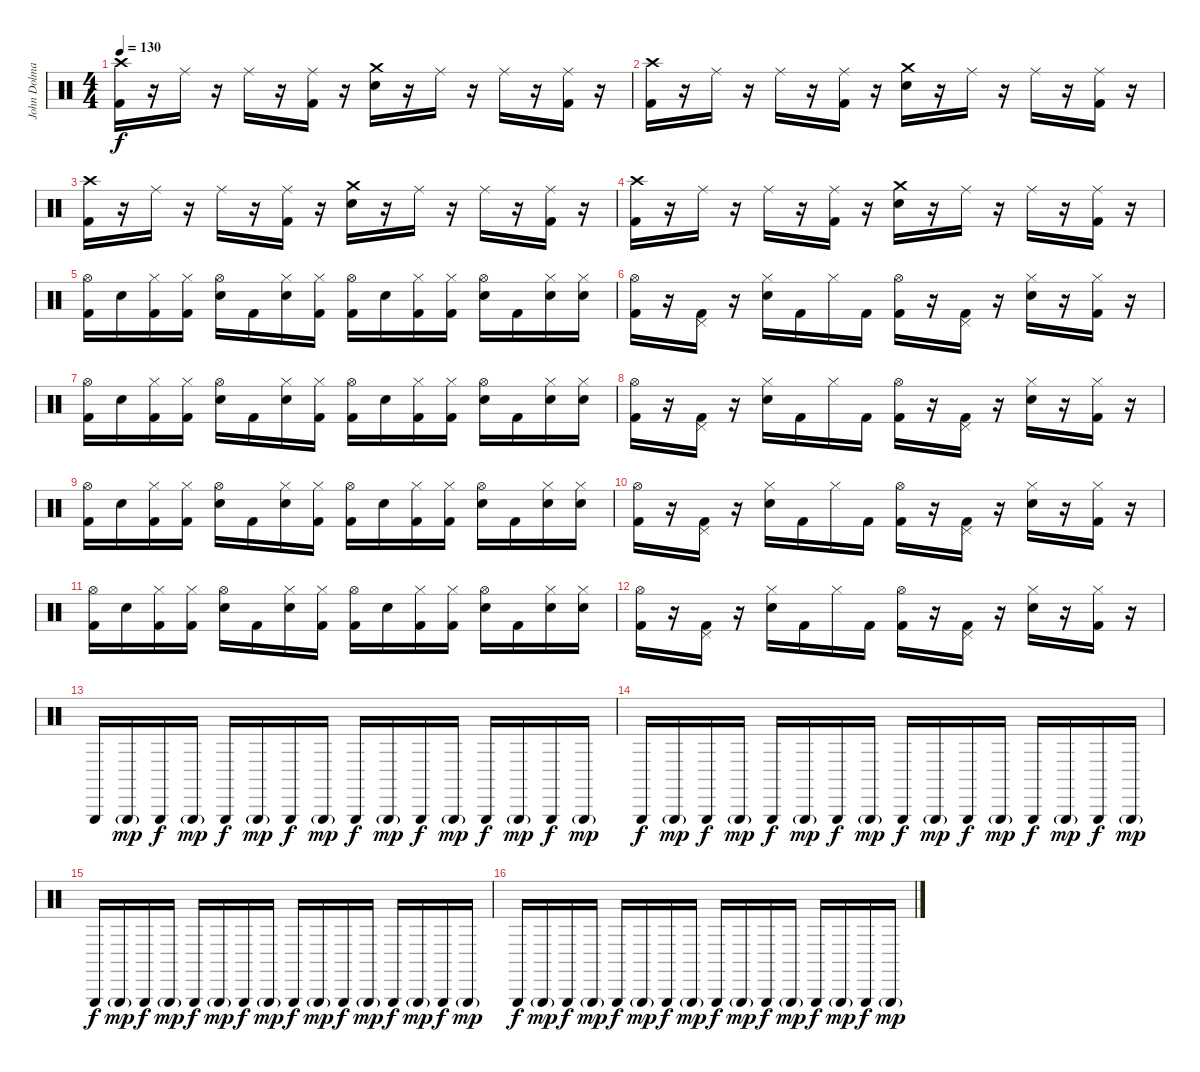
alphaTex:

\track ("John Dolmayan" "John Dolma") {instrument percussion}
\staff {score}
\articulation defaults
\ts (4 4)
\tempo 130
\clef neutral
\ks c
("Crash high (hit)" "Kick (hit) 2").16{dy f} r.16 "Ride (middle)".16 r.16 "Ride (middle)".16 r.16 ("Ride (middle)" "Kick (hit) 2").16 r.16 ("Crash medium (hit)" "Electric Snare (hit)").16 r.16 "Ride (middle)".16 r.16 "Ride (middle)".16 r.16 ("Ride (middle)" "Kick (hit) 2").16 r.16 |
("Crash high (hit)" "Kick (hit) 2").16 r.16 "Ride (middle)".16 r.16 "Ride (middle)".16 r.16 ("Ride (middle)" "Kick (hit) 2").16 r.16 ("Crash medium (hit)" "Electric Snare (hit)").16 r.16 "Ride (middle)".16 r.16 "Ride (middle)".16 r.16 ("Ride (middle)" "Kick (hit) 2").16 r.16 |
("Crash high (hit)" "Kick (hit) 2").16 r.16 "Ride (middle)".16 r.16 "Ride (middle)".16 r.16 ("Ride (middle)" "Kick (hit) 2").16 r.16 ("Crash medium (hit)" "Electric Snare (hit)").16 r.16 "Ride (middle)".16 r.16 "Ride (middle)".16 r.16 ("Ride (middle)" "Kick (hit) 2").16 r.16 |
("Crash high (hit)" "Kick (hit) 2").16 r.16 "Ride (middle)".16 r.16 "Ride (middle)".16 r.16 ("Ride (middle)" "Kick (hit) 2").16 r.16 ("Crash medium (hit)" "Electric Snare (hit)").16 r.16 "Ride (middle)".16 r.16 "Ride (middle)".16 r.16 ("Ride (middle)" "Kick (hit) 2").16 r.16 |
("Hi-Hat (open)" "Kick (hit) 2").16 "Electric Snare (hit)".16 ("Hi-Hat (closed)" "Kick (hit) 2").16 ("Hi-Hat (closed)" "Kick (hit) 2").16 ("Hi-Hat (open)" "Electric Snare (hit)").16 "Kick (hit) 2".16 ("Hi-Hat (closed)" "Electric Snare (hit)").16 ("Hi-Hat (closed)" "Kick (hit) 2").16 ("Hi-Hat (open)" "Kick (hit) 2").16 "Electric Snare (hit)".16 ("Hi-Hat (closed)" "Kick (hit) 2").16 ("Hi-Hat (closed)" "Kick (hit) 2").16 ("Hi-Hat (open)" "Electric Snare (hit)").16 "Kick (hit) 2".16 ("Hi-Hat (closed)" "Electric Snare (hit)").16 ("Hi-Hat (closed)" "Electric Snare (hit)").16 |
("Hi-Hat (open)" "Kick (hit) 2").16 r.16 ("Pedal Hi-Hat (hit)" "Kick (hit) 2").16 r.16 ("Hi-Hat (closed)" "Electric Snare (hit)").16 "Kick (hit) 2".16 "Hi-Hat (closed)".16 "Kick (hit) 2".16 ("Hi-Hat (open)" "Kick (hit) 2").16 r.16 ("Pedal Hi-Hat (hit)" "Kick (hit) 2").16 r.16 ("Hi-Hat (closed)" "Electric Snare (hit)").16 r.16 ("Hi-Hat (closed)" "Kick (hit) 2").16 r.16 |
("Hi-Hat (open)" "Kick (hit) 2").16 "Electric Snare (hit)".16 ("Hi-Hat (closed)" "Kick (hit) 2").16 ("Hi-Hat (closed)" "Kick (hit) 2").16 ("Hi-Hat (open)" "Electric Snare (hit)").16 "Kick (hit) 2".16 ("Hi-Hat (closed)" "Electric Snare (hit)").16 ("Hi-Hat (closed)" "Kick (hit) 2").16 ("Hi-Hat (open)" "Kick (hit) 2").16 "Electric Snare (hit)".16 ("Hi-Hat (closed)" "Kick (hit) 2").16 ("Hi-Hat (closed)" "Kick (hit) 2").16 ("Hi-Hat (open)" "Electric Snare (hit)").16 "Kick (hit) 2".16 ("Hi-Hat (closed)" "Electric Snare (hit)").16 ("Hi-Hat (closed)" "Electric Snare (hit)").16 |
("Hi-Hat (open)" "Kick (hit) 2").16 r.16 ("Pedal Hi-Hat (hit)" "Kick (hit) 2").16 r.16 ("Hi-Hat (closed)" "Electric Snare (hit)").16 "Kick (hit) 2".16 "Hi-Hat (closed)".16 "Kick (hit) 2".16 ("Hi-Hat (open)" "Kick (hit) 2").16 r.16 ("Pedal Hi-Hat (hit)" "Kick (hit) 2").16 r.16 ("Hi-Hat (closed)" "Electric Snare (hit)").16 r.16 ("Hi-Hat (closed)" "Kick (hit) 2").16 r.16 |
("Hi-Hat (open)" "Kick (hit) 2").16 "Electric Snare (hit)".16 ("Hi-Hat (closed)" "Kick (hit) 2").16 ("Hi-Hat (closed)" "Kick (hit) 2").16 ("Hi-Hat (open)" "Electric Snare (hit)").16 "Kick (hit) 2".16 ("Hi-Hat (closed)" "Electric Snare (hit)").16 ("Hi-Hat (closed)" "Kick (hit) 2").16 ("Hi-Hat (open)" "Kick (hit) 2").16 "Electric Snare (hit)".16 ("Hi-Hat (closed)" "Kick (hit) 2").16 ("Hi-Hat (closed)" "Kick (hit) 2").16 ("Hi-Hat (open)" "Electric Snare (hit)").16 "Kick (hit) 2".16 ("Hi-Hat (closed)" "Electric Snare (hit)").16 ("Hi-Hat (closed)" "Electric Snare (hit)").16 |
("Hi-Hat (open)" "Kick (hit) 2").16 r.16 ("Pedal Hi-Hat (hit)" "Kick (hit) 2").16 r.16 ("Hi-Hat (closed)" "Electric Snare (hit)").16 "Kick (hit) 2".16 "Hi-Hat (closed)".16 "Kick (hit) 2".16 ("Hi-Hat (open)" "Kick (hit) 2").16 r.16 ("Pedal Hi-Hat (hit)" "Kick (hit) 2").16 r.16 ("Hi-Hat (closed)" "Electric Snare (hit)").16 r.16 ("Hi-Hat (closed)" "Kick (hit) 2").16 r.16 |
("Hi-Hat (open)" "Kick (hit) 2").16 "Electric Snare (hit)".16 ("Hi-Hat (closed)" "Kick (hit) 2").16 ("Hi-Hat (closed)" "Kick (hit) 2").16 ("Hi-Hat (open)" "Electric Snare (hit)").16 "Kick (hit) 2".16 ("Hi-Hat (closed)" "Electric Snare (hit)").16 ("Hi-Hat (closed)" "Kick (hit) 2").16 ("Hi-Hat (open)" "Kick (hit) 2").16 "Electric Snare (hit)".16 ("Hi-Hat (closed)" "Kick (hit) 2").16 ("Hi-Hat (closed)" "Kick (hit) 2").16 ("Hi-Hat (open)" "Electric Snare (hit)").16 "Kick (hit) 2".16 ("Hi-Hat (closed)" "Electric Snare (hit)").16 ("Hi-Hat (closed)" "Electric Snare (hit)").16 |
("Hi-Hat (open)" "Kick (hit) 2").16 r.16 ("Pedal Hi-Hat (hit)" "Kick (hit) 2").16 r.16 ("Hi-Hat (closed)" "Electric Snare (hit)").16 "Kick (hit) 2".16 "Hi-Hat (closed)".16 "Kick (hit) 2".16 ("Hi-Hat (open)" "Kick (hit) 2").16 r.16 ("Pedal Hi-Hat (hit)" "Kick (hit) 2").16 r.16 ("Hi-Hat (closed)" "Electric Snare (hit)").16 r.16 ("Hi-Hat (closed)" "Kick (hit) 2").16 r.16 |
"Triangle (hit)".16 "Triangle (hit)"{g}.16{dy mp} "Triangle (hit)".16{dy f} "Triangle (hit)"{g}.16{dy mp} "Triangle (hit)".16{dy f} "Triangle (hit)"{g}.16{dy mp} "Triangle (hit)".16{dy f} "Triangle (hit)"{g}.16{dy mp} "Triangle (hit)".16{dy f} "Triangle (hit)"{g}.16{dy mp} "Triangle (hit)".16{dy f} "Triangle (hit)"{g}.16{dy mp} "Triangle (hit)".16{dy f} "Triangle (hit)"{g}.16{dy mp} "Triangle (hit)".16{dy f} "Triangle (hit)"{g}.16{dy mp} |
"Triangle (hit)".16{dy f} "Triangle (hit)"{g}.16{dy mp} "Triangle (hit)".16{dy f} "Triangle (hit)"{g}.16{dy mp} "Triangle (hit)".16{dy f} "Triangle (hit)"{g}.16{dy mp} "Triangle (hit)".16{dy f} "Triangle (hit)"{g}.16{dy mp} "Triangle (hit)".16{dy f} "Triangle (hit)"{g}.16{dy mp} "Triangle (hit)".16{dy f} "Triangle (hit)"{g}.16{dy mp} "Triangle (hit)".16{dy f} "Triangle (hit)"{g}.16{dy mp} "Triangle (hit)".16{dy f} "Triangle (hit)"{g}.16{dy mp} |
"Triangle (hit)".16{dy f} "Triangle (hit)"{g}.16{dy mp} "Triangle (hit)".16{dy f} "Triangle (hit)"{g}.16{dy mp} "Triangle (hit)".16{dy f} "Triangle (hit)"{g}.16{dy mp} "Triangle (hit)".16{dy f} "Triangle (hit)"{g}.16{dy mp} "Triangle (hit)".16{dy f} "Triangle (hit)"{g}.16{dy mp} "Triangle (hit)".16{dy f} "Triangle (hit)"{g}.16{dy mp} "Triangle (hit)".16{dy f} "Triangle (hit)"{g}.16{dy mp} "Triangle (hit)".16{dy f} "Triangle (hit)"{g}.16{dy mp} |
"Triangle (hit)".16{dy f} "Triangle (hit)"{g}.16{dy mp} "Triangle (hit)".16{dy f} "Triangle (hit)"{g}.16{dy mp} "Triangle (hit)".16{dy f} "Triangle (hit)"{g}.16{dy mp} "Triangle (hit)".16{dy f} "Triangle (hit)"{g}.16{dy mp} "Triangle (hit)".16{dy f} "Triangle (hit)"{g}.16{dy mp} "Triangle (hit)".16{dy f} "Triangle (hit)"{g}.16{dy mp} "Triangle (hit)".16{dy f} "Triangle (hit)"{g}.16{dy mp} "Triangle (hit)".16{dy f} "Triangle (hit)"{g}.16{dy mp}
